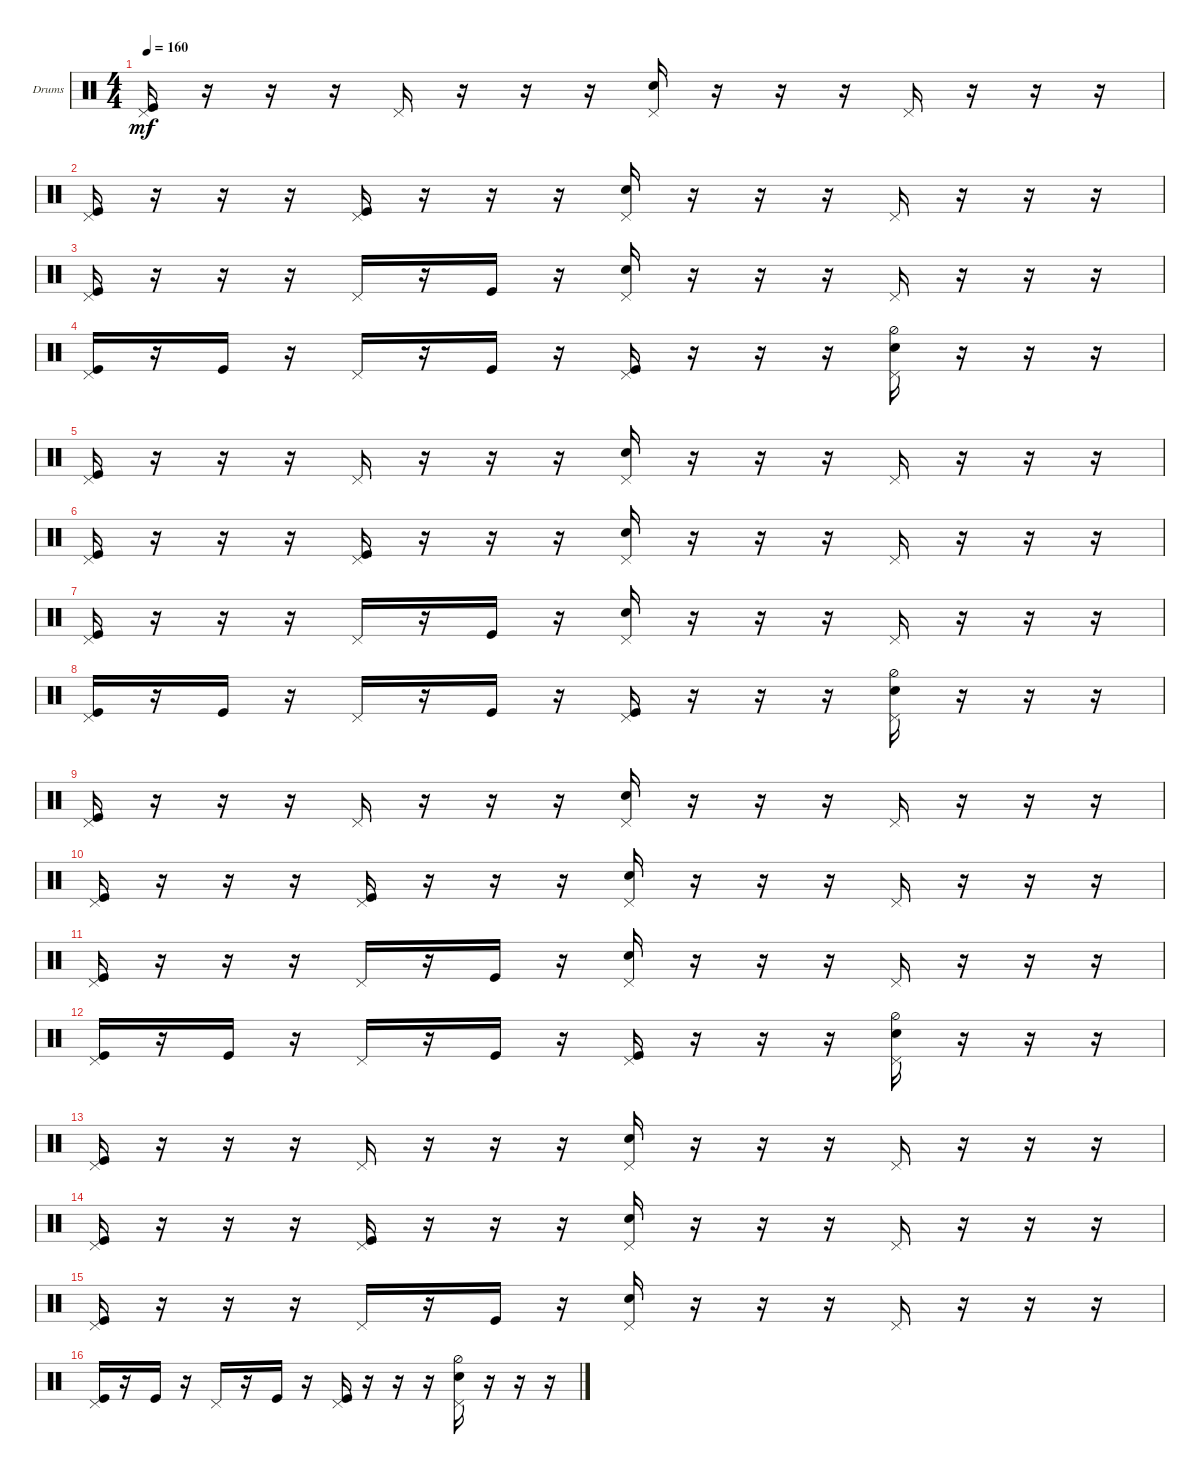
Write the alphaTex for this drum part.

\defaultSystemsLayout 4
\bracketExtendMode groupsimilarinstruments
\firstSystemTrackNameOrientation horizontal
\otherSystemsTrackNameOrientation horizontal
\track ("Drumkit" "Drums") {solo instrument percussion}
\staff {score}
\articulation defaults
\ts (4 4)
\tempo 160
\clef neutral
\ks c
("Kick (hit)" "Pedal Hi-Hat (hit)").16{dy mf} r.16 r.16 r.16 "Pedal Hi-Hat (hit)".16 r.16 r.16 r.16 ("Pedal Hi-Hat (hit)" "Snare (hit) 2").16 r.16 r.16 r.16 "Pedal Hi-Hat (hit)".16 r.16 r.16 r.16 |
("Kick (hit)" "Pedal Hi-Hat (hit)").16 r.16 r.16 r.16 ("Pedal Hi-Hat (hit)" "Kick (hit)").16 r.16 r.16 r.16 ("Pedal Hi-Hat (hit)" "Snare (hit) 2").16 r.16 r.16 r.16 "Pedal Hi-Hat (hit)".16 r.16 r.16 r.16 |
("Kick (hit)" "Pedal Hi-Hat (hit)").16 r.16 r.16 r.16 "Pedal Hi-Hat (hit)".16 r.16 "Kick (hit)".16 r.16 ("Pedal Hi-Hat (hit)" "Snare (hit) 2").16 r.16 r.16 r.16 "Pedal Hi-Hat (hit)".16 r.16 r.16 r.16 |
("Kick (hit)" "Pedal Hi-Hat (hit)").16 r.16 "Kick (hit)".16 r.16 "Pedal Hi-Hat (hit)".16 r.16 "Kick (hit)".16 r.16 ("Pedal Hi-Hat (hit)" "Kick (hit)").16 r.16 r.16 r.16 ("Pedal Hi-Hat (hit)" "Snare (hit) 2" "Hi-Hat (half)").16 r.16 r.16 r.16 |
("Kick (hit)" "Pedal Hi-Hat (hit)").16 r.16 r.16 r.16 "Pedal Hi-Hat (hit)".16 r.16 r.16 r.16 ("Pedal Hi-Hat (hit)" "Snare (hit) 2").16 r.16 r.16 r.16 "Pedal Hi-Hat (hit)".16 r.16 r.16 r.16 |
("Kick (hit)" "Pedal Hi-Hat (hit)").16 r.16 r.16 r.16 ("Pedal Hi-Hat (hit)" "Kick (hit)").16 r.16 r.16 r.16 ("Pedal Hi-Hat (hit)" "Snare (hit) 2").16 r.16 r.16 r.16 "Pedal Hi-Hat (hit)".16 r.16 r.16 r.16 |
("Kick (hit)" "Pedal Hi-Hat (hit)").16 r.16 r.16 r.16 "Pedal Hi-Hat (hit)".16 r.16 "Kick (hit)".16 r.16 ("Pedal Hi-Hat (hit)" "Snare (hit) 2").16 r.16 r.16 r.16 "Pedal Hi-Hat (hit)".16 r.16 r.16 r.16 |
("Kick (hit)" "Pedal Hi-Hat (hit)").16 r.16 "Kick (hit)".16 r.16 "Pedal Hi-Hat (hit)".16 r.16 "Kick (hit)".16 r.16 ("Pedal Hi-Hat (hit)" "Kick (hit)").16 r.16 r.16 r.16 ("Pedal Hi-Hat (hit)" "Snare (hit) 2" "Hi-Hat (half)").16 r.16 r.16 r.16 |
("Kick (hit)" "Pedal Hi-Hat (hit)").16 r.16 r.16 r.16 "Pedal Hi-Hat (hit)".16 r.16 r.16 r.16 ("Pedal Hi-Hat (hit)" "Snare (hit) 2").16 r.16 r.16 r.16 "Pedal Hi-Hat (hit)".16 r.16 r.16 r.16 |
("Kick (hit)" "Pedal Hi-Hat (hit)").16 r.16 r.16 r.16 ("Pedal Hi-Hat (hit)" "Kick (hit)").16 r.16 r.16 r.16 ("Pedal Hi-Hat (hit)" "Snare (hit) 2").16 r.16 r.16 r.16 "Pedal Hi-Hat (hit)".16 r.16 r.16 r.16 |
("Kick (hit)" "Pedal Hi-Hat (hit)").16 r.16 r.16 r.16 "Pedal Hi-Hat (hit)".16 r.16 "Kick (hit)".16 r.16 ("Pedal Hi-Hat (hit)" "Snare (hit) 2").16 r.16 r.16 r.16 "Pedal Hi-Hat (hit)".16 r.16 r.16 r.16 |
("Kick (hit)" "Pedal Hi-Hat (hit)").16 r.16 "Kick (hit)".16 r.16 "Pedal Hi-Hat (hit)".16 r.16 "Kick (hit)".16 r.16 ("Pedal Hi-Hat (hit)" "Kick (hit)").16 r.16 r.16 r.16 ("Pedal Hi-Hat (hit)" "Snare (hit) 2" "Hi-Hat (half)").16 r.16 r.16 r.16 |
("Kick (hit)" "Pedal Hi-Hat (hit)").16 r.16 r.16 r.16 "Pedal Hi-Hat (hit)".16 r.16 r.16 r.16 ("Pedal Hi-Hat (hit)" "Snare (hit) 2").16 r.16 r.16 r.16 "Pedal Hi-Hat (hit)".16 r.16 r.16 r.16 |
("Kick (hit)" "Pedal Hi-Hat (hit)").16 r.16 r.16 r.16 ("Pedal Hi-Hat (hit)" "Kick (hit)").16 r.16 r.16 r.16 ("Pedal Hi-Hat (hit)" "Snare (hit) 2").16 r.16 r.16 r.16 "Pedal Hi-Hat (hit)".16 r.16 r.16 r.16 |
("Kick (hit)" "Pedal Hi-Hat (hit)").16 r.16 r.16 r.16 "Pedal Hi-Hat (hit)".16 r.16 "Kick (hit)".16 r.16 ("Pedal Hi-Hat (hit)" "Snare (hit) 2").16 r.16 r.16 r.16 "Pedal Hi-Hat (hit)".16 r.16 r.16 r.16 |
("Kick (hit)" "Pedal Hi-Hat (hit)").16 r.16 "Kick (hit)".16 r.16 "Pedal Hi-Hat (hit)".16 r.16 "Kick (hit)".16 r.16 ("Pedal Hi-Hat (hit)" "Kick (hit)").16 r.16 r.16 r.16 ("Pedal Hi-Hat (hit)" "Snare (hit) 2" "Hi-Hat (half)").16 r.16 r.16 r.16
